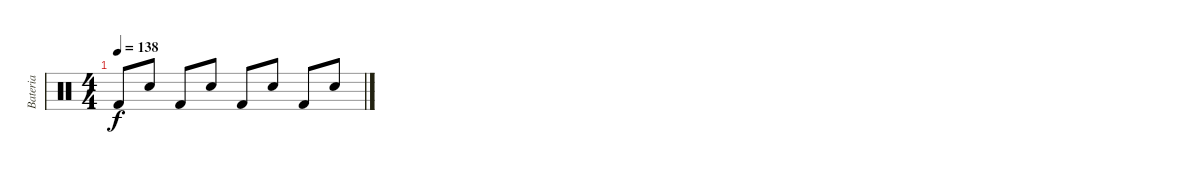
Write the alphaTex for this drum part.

\track ("Bateria" "Bateria") {instrument percussion}
\staff {score}
\articulation defaults
\ts (4 4)
\tempo 138
\clef neutral
\ks c "Kick (hit) 2".8{dy f} "Snare (hit) 2".8 "Kick (hit) 2".8 "Snare (hit) 2".8 "Kick (hit) 2".8 "Snare (hit) 2".8 "Kick (hit) 2".8 "Snare (hit) 2".8
